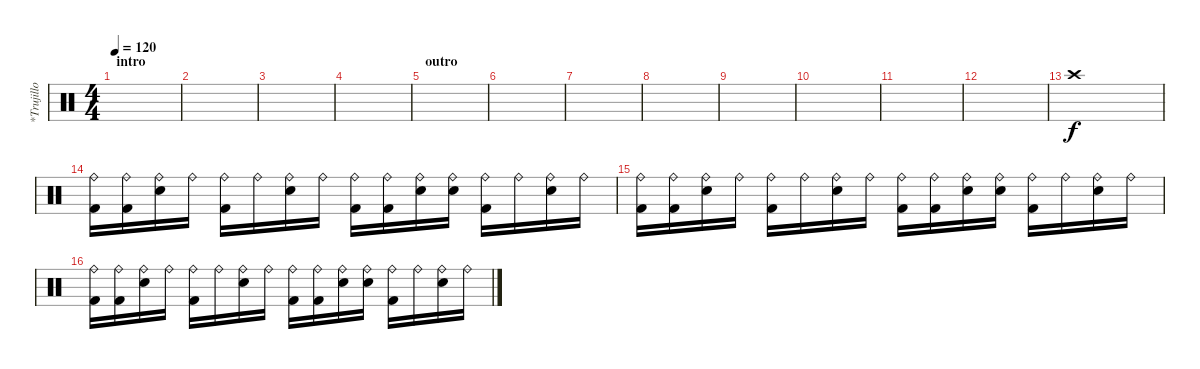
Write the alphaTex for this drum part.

\track ("*Trujillo" "*Trujillo") {instrument percussion}
\staff {score}
\articulation defaults
\ts (4 4)
\section ("" "intro")
\tempo 120
\clef neutral
\ks c
|
|
|
|
\section ("" "outro")
|
|
|
|
|
|
|
|
"Crash high (hit)".1 |
("Ride (bell)" "Kick (hit) 2").16 ("Ride (bell)" "Kick (hit) 2").16 ("Ride (bell)" "Electric Snare (hit)").16 "Ride (bell)".16 ("Ride (bell)" "Kick (hit) 2").16 "Ride (bell)".16 ("Ride (bell)" "Electric Snare (hit)").16 "Ride (bell)".16 ("Ride (bell)" "Kick (hit) 2").16 ("Ride (bell)" "Kick (hit) 2").16 ("Ride (bell)" "Electric Snare (hit)").16 ("Ride (bell)" "Electric Snare (hit)"{x}).16 ("Ride (bell)" "Kick (hit) 2").16 "Ride (bell)".16 ("Ride (bell)" "Electric Snare (hit)").16 "Ride (bell)".16 |
("Ride (bell)" "Kick (hit) 2").16 ("Ride (bell)" "Kick (hit) 2").16 ("Ride (bell)" "Electric Snare (hit)").16 "Ride (bell)".16 ("Ride (bell)" "Kick (hit) 2").16 "Ride (bell)".16 ("Ride (bell)" "Electric Snare (hit)").16 "Ride (bell)".16 ("Ride (bell)" "Kick (hit) 2").16 ("Ride (bell)" "Kick (hit) 2").16 ("Ride (bell)" "Electric Snare (hit)").16 ("Ride (bell)" "Electric Snare (hit)"{x}).16 ("Ride (bell)" "Kick (hit) 2").16 "Ride (bell)".16 ("Ride (bell)" "Electric Snare (hit)").16 "Ride (bell)".16 |
("Ride (bell)" "Kick (hit) 2").16 ("Ride (bell)" "Kick (hit) 2").16 ("Ride (bell)" "Electric Snare (hit)").16 "Ride (bell)".16 ("Ride (bell)" "Kick (hit) 2").16 "Ride (bell)".16 ("Ride (bell)" "Electric Snare (hit)").16 "Ride (bell)".16 ("Ride (bell)" "Kick (hit) 2").16 ("Ride (bell)" "Kick (hit) 2").16 ("Ride (bell)" "Electric Snare (hit)").16 ("Ride (bell)" "Electric Snare (hit)"{x}).16 ("Ride (bell)" "Kick (hit) 2").16 "Ride (bell)".16 ("Ride (bell)" "Electric Snare (hit)").16 "Ride (bell)".16
